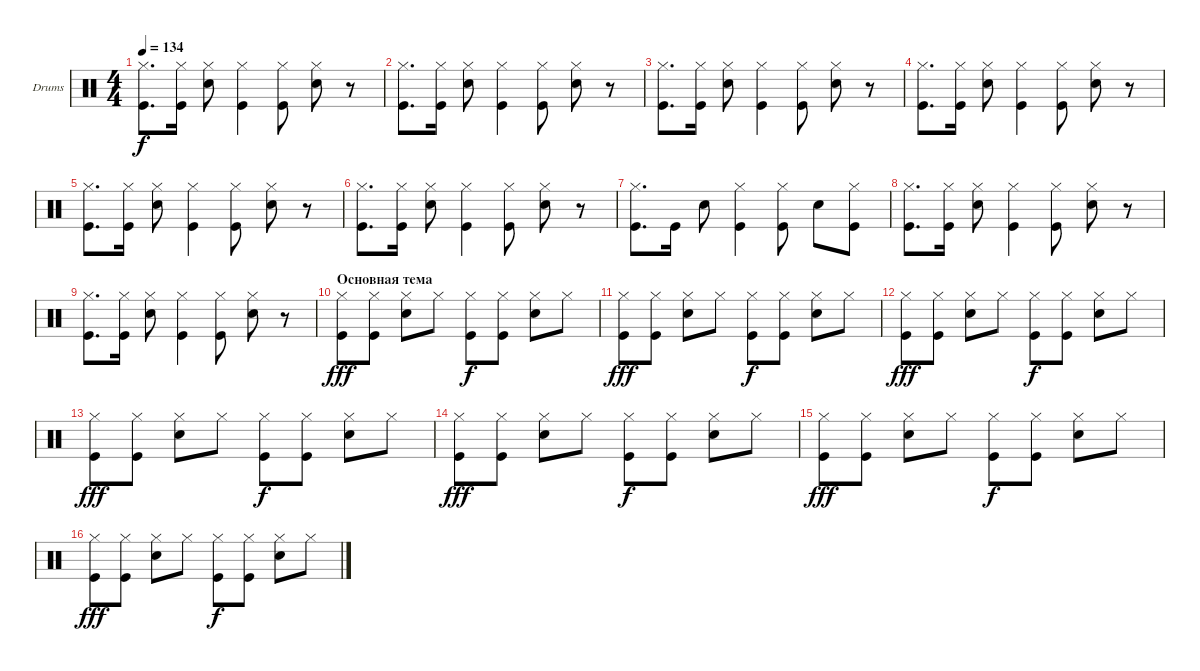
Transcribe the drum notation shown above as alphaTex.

\defaultSystemsLayout 4
\bracketExtendMode groupsimilarinstruments
\firstSystemTrackNameOrientation horizontal
\otherSystemsTrackNameOrientation horizontal
\track ("Drumkit" "Drums") {instrument percussion}
\staff {score}
\articulation defaults
\ts (4 4)
\tempo 134
\clef neutral
\ks c
("Kick (hit)" "Hi-Hat (closed)").8{d dy f} ("Kick (hit)" "Hi-Hat (closed)").16 ("Snare (hit) 2" "Hi-Hat (closed)").8 ("Kick (hit)" "Hi-Hat (closed)").4 ("Kick (hit)" "Hi-Hat (closed)").8 ("Snare (hit) 2" "Hi-Hat (closed)").8 r.8 |
("Kick (hit)" "Hi-Hat (closed)").8{d} ("Kick (hit)" "Hi-Hat (closed)").16 ("Snare (hit) 2" "Hi-Hat (closed)").8 ("Kick (hit)" "Hi-Hat (closed)").4 ("Kick (hit)" "Hi-Hat (closed)").8 ("Snare (hit) 2" "Hi-Hat (closed)").8 r.8 |
("Kick (hit)" "Hi-Hat (closed)").8{d} ("Kick (hit)" "Hi-Hat (closed)").16 ("Snare (hit) 2" "Hi-Hat (closed)").8 ("Kick (hit)" "Hi-Hat (closed)").4 ("Kick (hit)" "Hi-Hat (closed)").8 ("Snare (hit) 2" "Hi-Hat (closed)").8 r.8 |
("Kick (hit)" "Hi-Hat (closed)").8{d} ("Kick (hit)" "Hi-Hat (closed)").16 ("Snare (hit) 2" "Hi-Hat (closed)").8 ("Kick (hit)" "Hi-Hat (closed)").4 ("Kick (hit)" "Hi-Hat (closed)").8 ("Snare (hit) 2" "Hi-Hat (closed)").8 r.8 |
("Kick (hit)" "Hi-Hat (closed)").8{d} ("Kick (hit)" "Hi-Hat (closed)").16 ("Snare (hit) 2" "Hi-Hat (closed)").8 ("Kick (hit)" "Hi-Hat (closed)").4 ("Kick (hit)" "Hi-Hat (closed)").8 ("Snare (hit) 2" "Hi-Hat (closed)").8 r.8 |
("Kick (hit)" "Hi-Hat (closed)").8{d} ("Kick (hit)" "Hi-Hat (closed)").16 ("Snare (hit) 2" "Hi-Hat (closed)").8 ("Kick (hit)" "Hi-Hat (closed)").4 ("Kick (hit)" "Hi-Hat (closed)").8 ("Snare (hit) 2" "Hi-Hat (closed)").8 r.8 |
("Kick (hit)" "Hi-Hat (closed)").8{d} "Kick (hit)".16 "Snare (hit) 2".8 ("Kick (hit)" "Hi-Hat (closed)").4 ("Kick (hit)" "Hi-Hat (closed)").8 "Snare (hit) 2".8 ("Kick (hit)" "Hi-Hat (closed)").8 |
("Kick (hit)" "Hi-Hat (closed)").8{d} ("Kick (hit)" "Hi-Hat (closed)").16 ("Snare (hit) 2" "Hi-Hat (closed)").8 ("Kick (hit)" "Hi-Hat (closed)").4 ("Kick (hit)" "Hi-Hat (closed)").8 ("Snare (hit) 2" "Hi-Hat (closed)").8 r.8 |
("Kick (hit)" "Hi-Hat (closed)").8{d} ("Kick (hit)" "Hi-Hat (closed)").16 ("Snare (hit) 2" "Hi-Hat (closed)").8 ("Kick (hit)" "Hi-Hat (closed)").4 ("Kick (hit)" "Hi-Hat (closed)").8 ("Snare (hit) 2" "Hi-Hat (closed)").8 r.8 |
\section ("" "Основная тема")
("Hi-Hat (closed)" "Kick (hit)").8{dy fff} ("Hi-Hat (closed)" "Kick (hit)").8 ("Hi-Hat (closed)" "Snare (hit) 2").8 "Hi-Hat (closed)".8 ("Hi-Hat (closed)" "Kick (hit)").8{dy f} ("Hi-Hat (closed)" "Kick (hit)").8 ("Hi-Hat (closed)" "Snare (hit) 2").8 "Hi-Hat (closed)".8 |
("Hi-Hat (closed)" "Kick (hit)").8{dy fff} ("Hi-Hat (closed)" "Kick (hit)").8 ("Hi-Hat (closed)" "Snare (hit) 2").8 "Hi-Hat (closed)".8 ("Hi-Hat (closed)" "Kick (hit)").8{dy f} ("Hi-Hat (closed)" "Kick (hit)").8 ("Hi-Hat (closed)" "Snare (hit) 2").8 "Hi-Hat (closed)".8 |
("Hi-Hat (closed)" "Kick (hit)").8{dy fff} ("Hi-Hat (closed)" "Kick (hit)").8 ("Hi-Hat (closed)" "Snare (hit) 2").8 "Hi-Hat (closed)".8 ("Hi-Hat (closed)" "Kick (hit)").8{dy f} ("Hi-Hat (closed)" "Kick (hit)").8 ("Hi-Hat (closed)" "Snare (hit) 2").8 "Hi-Hat (closed)".8 |
("Hi-Hat (closed)" "Kick (hit)").8{dy fff} ("Hi-Hat (closed)" "Kick (hit)").8 ("Hi-Hat (closed)" "Snare (hit) 2").8 "Hi-Hat (closed)".8 ("Hi-Hat (closed)" "Kick (hit)").8{dy f} ("Hi-Hat (closed)" "Kick (hit)").8 ("Hi-Hat (closed)" "Snare (hit) 2").8 "Hi-Hat (closed)".8 |
("Hi-Hat (closed)" "Kick (hit)").8{dy fff} ("Hi-Hat (closed)" "Kick (hit)").8 ("Hi-Hat (closed)" "Snare (hit) 2").8 "Hi-Hat (closed)".8 ("Hi-Hat (closed)" "Kick (hit)").8{dy f} ("Hi-Hat (closed)" "Kick (hit)").8 ("Hi-Hat (closed)" "Snare (hit) 2").8 "Hi-Hat (closed)".8 |
("Hi-Hat (closed)" "Kick (hit)").8{dy fff} ("Hi-Hat (closed)" "Kick (hit)").8 ("Hi-Hat (closed)" "Snare (hit) 2").8 "Hi-Hat (closed)".8 ("Hi-Hat (closed)" "Kick (hit)").8{dy f} ("Hi-Hat (closed)" "Kick (hit)").8 ("Hi-Hat (closed)" "Snare (hit) 2").8 "Hi-Hat (closed)".8 |
("Hi-Hat (closed)" "Kick (hit)").8{dy fff} ("Hi-Hat (closed)" "Kick (hit)").8 ("Hi-Hat (closed)" "Snare (hit) 2").8 "Hi-Hat (closed)".8 ("Hi-Hat (closed)" "Kick (hit)").8{dy f} ("Hi-Hat (closed)" "Kick (hit)").8 ("Hi-Hat (closed)" "Snare (hit) 2").8 "Hi-Hat (closed)".8
